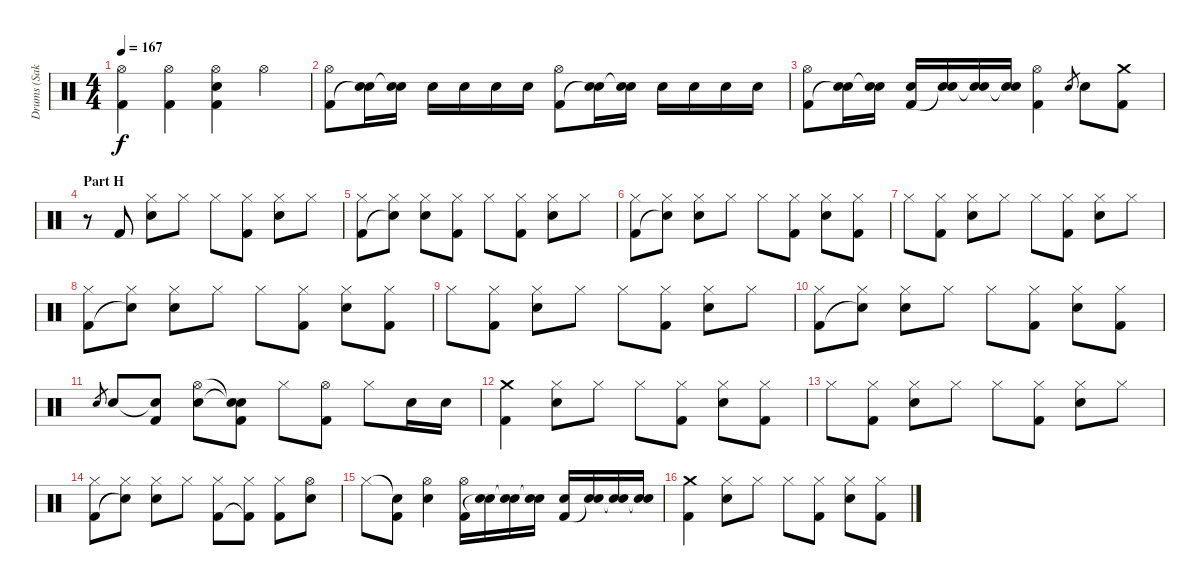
\track ("Drums (Sakura)" "Drums (Sak") {instrument percussion}
\staff {score}
\articulation defaults
\ts (4 4)
\tempo 167
\clef neutral
\ks c
("Hi-Hat (open)" "Kick (hit) 2").4{dy f} ("Hi-Hat (open)" "Kick (hit) 2").4 ("Hi-Hat (open)" "Electric Snare (hit)" "Kick (hit) 2").4 "Hi-Hat (open)".4 |
("Hi-Hat (open)" "Kick (hit) 2").8 ("Electric Snare (hit)" "Snare (hit)"{t}).16 ("Electric Snare (hit)" "Snare (hit)"{t}).16 "Electric Snare (hit)".16 "Electric Snare (hit)".16 "Electric Snare (hit)".16 "Electric Snare (hit)".16 ("Hi-Hat (open)" "Kick (hit) 2").8 ("Electric Snare (hit)" "Snare (hit)"{t}).16 ("Electric Snare (hit)" "Snare (hit)"{t}).16 "Electric Snare (hit)".16 "Electric Snare (hit)".16 "Electric Snare (hit)".16 "Electric Snare (hit)".16 |
("Hi-Hat (open)" "Kick (hit) 2").8 ("Electric Snare (hit)" "Snare (hit)"{t}).16 ("Electric Snare (hit)" "Snare (hit)"{t}).16 ("Electric Snare (hit)" "Kick (hit) 2").16 ("Electric Snare (hit)" "Snare (hit)"{t}).16 ("Electric Snare (hit)" "Snare (hit)"{t}).16 ("Electric Snare (hit)" "Snare (hit)"{t}).16 ("Hi-Hat (open)" "Kick (hit) 2").4 "Electric Snare (hit)".8{gr} "Electric Snare (hit)".8 ("Crash medium (hit)" "Kick (hit) 2").8 |
\section ("" "Part H")
r.8 "Kick (hit) 2".8 ("Hi-Hat (closed)" "Electric Snare (hit)").8 "Hi-Hat (closed)".8 "Hi-Hat (closed)".8 ("Hi-Hat (closed)" "Kick (hit) 2").8 ("Hi-Hat (closed)" "Electric Snare (hit)").8 "Hi-Hat (closed)".8 |
("Hi-Hat (closed)" "Kick (hit) 2").8 ("Hi-Hat (closed)" "Snare (hit)"{t}).8 ("Hi-Hat (closed)" "Electric Snare (hit)").8 ("Hi-Hat (closed)" "Kick (hit) 2").8 "Hi-Hat (closed)".8 ("Hi-Hat (closed)" "Kick (hit) 2").8 ("Hi-Hat (closed)" "Electric Snare (hit)").8 "Hi-Hat (closed)".8 |
("Hi-Hat (closed)" "Kick (hit) 2").8 ("Hi-Hat (closed)" "Snare (hit)"{t}).8 ("Hi-Hat (closed)" "Electric Snare (hit)").8 "Hi-Hat (closed)".8 "Hi-Hat (closed)".8 ("Hi-Hat (closed)" "Kick (hit) 2").8 ("Hi-Hat (closed)" "Electric Snare (hit)").8 ("Hi-Hat (closed)" "Kick (hit) 2").8 |
"Hi-Hat (closed)".8 ("Hi-Hat (closed)" "Kick (hit) 2").8 ("Hi-Hat (closed)" "Electric Snare (hit)").8 "Hi-Hat (closed)".8 "Hi-Hat (closed)".8 ("Hi-Hat (closed)" "Kick (hit) 2").8 ("Hi-Hat (closed)" "Electric Snare (hit)").8 "Hi-Hat (closed)".8 |
("Hi-Hat (closed)" "Kick (hit) 2").8 ("Hi-Hat (closed)" "Snare (hit)"{t}).8 ("Hi-Hat (closed)" "Electric Snare (hit)").8 "Hi-Hat (closed)".8 "Hi-Hat (closed)".8 ("Hi-Hat (closed)" "Kick (hit) 2").8 ("Hi-Hat (closed)" "Electric Snare (hit)").8 ("Hi-Hat (closed)" "Kick (hit) 2").8 |
"Hi-Hat (closed)".8 ("Hi-Hat (closed)" "Kick (hit) 2").8 ("Hi-Hat (closed)" "Electric Snare (hit)").8 "Hi-Hat (closed)".8 "Hi-Hat (closed)".8 ("Hi-Hat (closed)" "Kick (hit) 2").8 ("Hi-Hat (closed)" "Electric Snare (hit)").8 "Hi-Hat (closed)".8 |
("Hi-Hat (closed)" "Kick (hit) 2").8 ("Hi-Hat (closed)" "Snare (hit)"{t}).8 ("Hi-Hat (closed)" "Electric Snare (hit)").8 "Hi-Hat (closed)".8 "Hi-Hat (closed)".8 ("Hi-Hat (closed)" "Kick (hit) 2").8 ("Hi-Hat (closed)" "Electric Snare (hit)").8 ("Hi-Hat (closed)" "Kick (hit) 2").8 |
"Electric Snare (hit)".8{gr} "Electric Snare (hit)".8 ("Snare (hit)"{t} "Kick (hit) 2").8 ("Hi-Hat (open)" "Electric Snare (hit)").8 ("Snare (hit)"{t} "Snare (hit)"{t} "Kick (hit) 2").8 "Hi-Hat (closed)".8 ("Hi-Hat (open)" "Kick (hit) 2").8 "Hi-Hat (closed)".8 "Electric Snare (hit)".16 "Electric Snare (hit)".16 |
("Crash medium (hit)" "Kick (hit) 2").4 ("Hi-Hat (closed)" "Electric Snare (hit)").8 "Hi-Hat (closed)".8 "Hi-Hat (closed)".8 ("Hi-Hat (closed)" "Kick (hit) 2").8 ("Hi-Hat (closed)" "Electric Snare (hit)").8 ("Hi-Hat (closed)" "Kick (hit) 2").8 |
"Hi-Hat (closed)".8 ("Hi-Hat (closed)" "Kick (hit) 2").8 ("Hi-Hat (closed)" "Electric Snare (hit)").8 "Hi-Hat (closed)".8 "Hi-Hat (closed)".8 ("Hi-Hat (closed)" "Kick (hit) 2").8 ("Hi-Hat (closed)" "Electric Snare (hit)").8 "Hi-Hat (closed)".8 |
("Hi-Hat (closed)" "Kick (hit) 2").8 ("Hi-Hat (closed)" "Snare (hit)"{t}).8 ("Hi-Hat (closed)" "Electric Snare (hit)").8 "Hi-Hat (closed)".8 ("Hi-Hat (closed)" "Kick (hit) 2").8 ("Hi-Hat (closed)" "Kick (hit) 2"{t}).8 ("Hi-Hat (closed)" "Kick (hit) 2").8 ("Hi-Hat (open)" "Electric Snare (hit)").8 |
"Hi-Hat (closed)".8 ("Snare (hit)"{t} "Kick (hit) 2").8 ("Hi-Hat (open)" "Electric Snare (hit)").4 ("Hi-Hat (open)" "Kick (hit) 2").16 ("Electric Snare (hit)" "Snare (hit)"{t}).16 ("Electric Snare (hit)" "Snare (hit)"{t}).16 ("Electric Snare (hit)" "Snare (hit)"{t}).16 ("Electric Snare (hit)" "Kick (hit) 2").16 ("Electric Snare (hit)" "Snare (hit)"{t}).16 ("Electric Snare (hit)" "Snare (hit)"{t}).16 ("Electric Snare (hit)" "Snare (hit)"{t}).16 |
("Crash medium (hit)" "Kick (hit) 2").4 ("Hi-Hat (closed)" "Electric Snare (hit)").8 "Hi-Hat (closed)".8 "Hi-Hat (closed)".8 ("Hi-Hat (closed)" "Kick (hit) 2").8 ("Hi-Hat (closed)" "Electric Snare (hit)").8 ("Hi-Hat (closed)" "Kick (hit) 2").8
